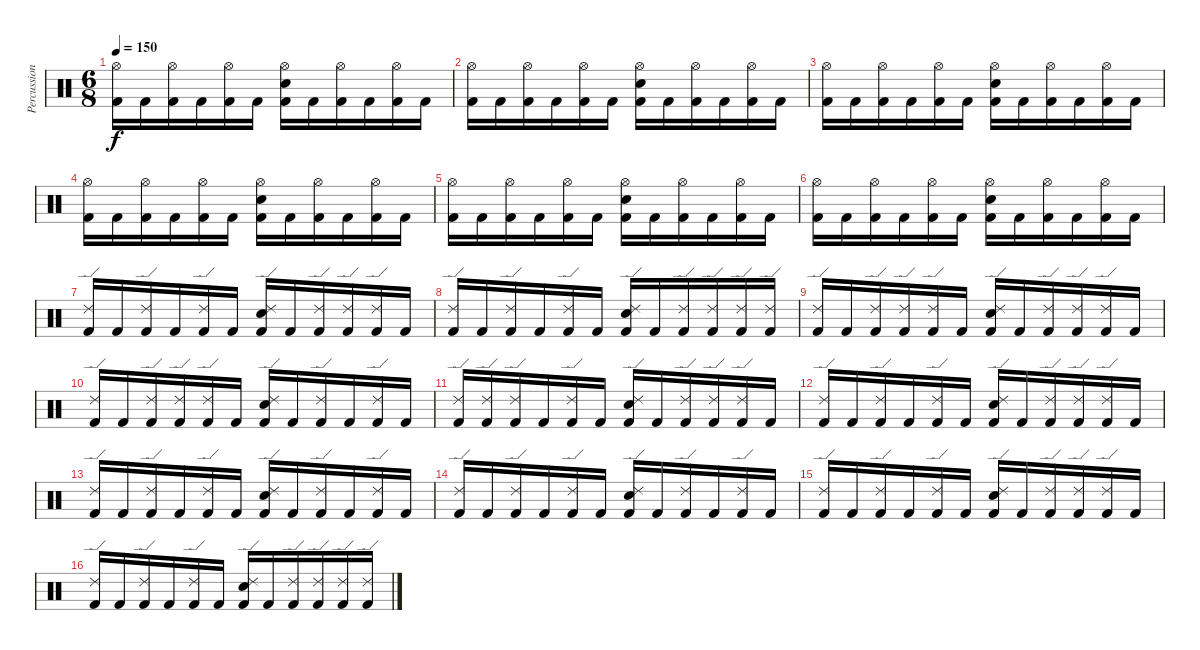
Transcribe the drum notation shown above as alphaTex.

\track ("Percussion" "Percussion") {instrument percussion}
\staff {score}
\articulation defaults
\ts (6 8)
\tempo 150
\clef neutral
\ks c
("Hi-Hat (open)" "Kick (hit) 2").16{dy f} "Kick (hit) 2".16 ("Hi-Hat (open)" "Kick (hit) 2").16 "Kick (hit) 2".16 ("Hi-Hat (open)" "Kick (hit) 2").16 "Kick (hit) 2".16 ("Hi-Hat (open)" "Electric Snare (hit)" "Kick (hit) 2").16 "Kick (hit) 2".16 ("Hi-Hat (open)" "Kick (hit) 2").16 "Kick (hit) 2".16 ("Hi-Hat (open)" "Kick (hit) 2").16 "Kick (hit) 2".16 |
("Hi-Hat (open)" "Kick (hit) 2").16 "Kick (hit) 2".16 ("Hi-Hat (open)" "Kick (hit) 2").16 "Kick (hit) 2".16 ("Hi-Hat (open)" "Kick (hit) 2").16 "Kick (hit) 2".16 ("Hi-Hat (open)" "Electric Snare (hit)" "Kick (hit) 2").16 "Kick (hit) 2".16 ("Hi-Hat (open)" "Kick (hit) 2").16 "Kick (hit) 2".16 ("Hi-Hat (open)" "Kick (hit) 2").16 "Kick (hit) 2".16 |
("Hi-Hat (open)" "Kick (hit) 2").16 "Kick (hit) 2".16 ("Hi-Hat (open)" "Kick (hit) 2").16 "Kick (hit) 2".16 ("Hi-Hat (open)" "Kick (hit) 2").16 "Kick (hit) 2".16 ("Hi-Hat (open)" "Electric Snare (hit)" "Kick (hit) 2").16 "Kick (hit) 2".16 ("Hi-Hat (open)" "Kick (hit) 2").16 "Kick (hit) 2".16 ("Hi-Hat (open)" "Kick (hit) 2").16 "Kick (hit) 2".16 |
("Hi-Hat (open)" "Kick (hit) 2").16 "Kick (hit) 2".16 ("Hi-Hat (open)" "Kick (hit) 2").16 "Kick (hit) 2".16 ("Hi-Hat (open)" "Kick (hit) 2").16 "Kick (hit) 2".16 ("Hi-Hat (open)" "Electric Snare (hit)" "Kick (hit) 2").16 "Kick (hit) 2".16 ("Hi-Hat (open)" "Kick (hit) 2").16 "Kick (hit) 2".16 ("Hi-Hat (open)" "Kick (hit) 2").16 "Kick (hit) 2".16 |
("Hi-Hat (open)" "Kick (hit) 2").16 "Kick (hit) 2".16 ("Hi-Hat (open)" "Kick (hit) 2").16 "Kick (hit) 2".16 ("Hi-Hat (open)" "Kick (hit) 2").16 "Kick (hit) 2".16 ("Hi-Hat (open)" "Electric Snare (hit)" "Kick (hit) 2").16 "Kick (hit) 2".16 ("Hi-Hat (open)" "Kick (hit) 2").16 "Kick (hit) 2".16 ("Hi-Hat (open)" "Kick (hit) 2").16 "Kick (hit) 2".16 |
("Hi-Hat (open)" "Kick (hit) 2").16 "Kick (hit) 2".16 ("Hi-Hat (open)" "Kick (hit) 2").16 "Kick (hit) 2".16 ("Hi-Hat (open)" "Kick (hit) 2").16 "Kick (hit) 2".16 ("Hi-Hat (open)" "Electric Snare (hit)" "Kick (hit) 2").16 "Kick (hit) 2".16 ("Hi-Hat (open)" "Kick (hit) 2").16 "Kick (hit) 2".16 ("Hi-Hat (open)" "Kick (hit) 2").16 "Kick (hit) 2".16 |
("Ride (edge) 2" "Kick (hit) 2").16 "Kick (hit) 2".16 ("Ride (edge) 2" "Kick (hit) 2").16 "Kick (hit) 2".16 ("Ride (edge) 2" "Kick (hit) 2").16 "Kick (hit) 2".16 ("Ride (edge) 2" "Electric Snare (hit)" "Kick (hit) 2").16 "Kick (hit) 2".16 ("Ride (edge) 2" "Kick (hit) 2").16 ("Ride (edge) 2" "Kick (hit) 2").16 ("Ride (edge) 2" "Kick (hit) 2").16 "Kick (hit) 2".16 |
("Ride (edge) 2" "Kick (hit) 2").16 "Kick (hit) 2".16 ("Ride (edge) 2" "Kick (hit) 2").16 "Kick (hit) 2".16 ("Ride (edge) 2" "Kick (hit) 2").16 "Kick (hit) 2".16 ("Ride (edge) 2" "Electric Snare (hit)" "Kick (hit) 2").16 "Kick (hit) 2".16 ("Ride (edge) 2" "Kick (hit) 2").16 ("Ride (edge) 2" "Kick (hit) 2").16 ("Ride (edge) 2" "Kick (hit) 2").16 ("Ride (edge) 2" "Kick (hit) 2").16 |
("Ride (edge) 2" "Kick (hit) 2").16 "Kick (hit) 2".16 ("Ride (edge) 2" "Kick (hit) 2").16 ("Ride (edge) 2" "Kick (hit) 2").16 ("Ride (edge) 2" "Kick (hit) 2").16 "Kick (hit) 2".16 ("Ride (edge) 2" "Electric Snare (hit)" "Kick (hit) 2").16 "Kick (hit) 2".16 ("Ride (edge) 2" "Kick (hit) 2").16 ("Ride (edge) 2" "Kick (hit) 2").16 ("Ride (edge) 2" "Kick (hit) 2").16 "Kick (hit) 2".16 |
("Ride (edge) 2" "Kick (hit) 2").16 "Kick (hit) 2".16 ("Ride (edge) 2" "Kick (hit) 2").16 ("Ride (edge) 2" "Kick (hit) 2").16 ("Ride (edge) 2" "Kick (hit) 2").16 "Kick (hit) 2".16 ("Ride (edge) 2" "Electric Snare (hit)" "Kick (hit) 2").16 "Kick (hit) 2".16 ("Ride (edge) 2" "Kick (hit) 2").16 "Kick (hit) 2".16 ("Ride (edge) 2" "Kick (hit) 2").16 "Kick (hit) 2".16 |
("Ride (edge) 2" "Kick (hit) 2").16 ("Ride (edge) 2" "Kick (hit) 2").16 ("Ride (edge) 2" "Kick (hit) 2").16 "Kick (hit) 2".16 ("Ride (edge) 2" "Kick (hit) 2").16 "Kick (hit) 2".16 ("Ride (edge) 2" "Electric Snare (hit)" "Kick (hit) 2").16 "Kick (hit) 2".16 ("Ride (edge) 2" "Kick (hit) 2").16 ("Ride (edge) 2" "Kick (hit) 2").16 ("Ride (edge) 2" "Kick (hit) 2").16 "Kick (hit) 2".16 |
("Ride (edge) 2" "Kick (hit) 2").16 "Kick (hit) 2".16 ("Ride (edge) 2" "Kick (hit) 2").16 "Kick (hit) 2".16 ("Ride (edge) 2" "Kick (hit) 2").16 "Kick (hit) 2".16 ("Ride (edge) 2" "Electric Snare (hit)" "Kick (hit) 2").16 "Kick (hit) 2".16 ("Ride (edge) 2" "Kick (hit) 2").16 ("Ride (edge) 2" "Kick (hit) 2").16 ("Ride (edge) 2" "Kick (hit) 2").16 "Kick (hit) 2".16 |
("Ride (edge) 2" "Kick (hit) 2").16 "Kick (hit) 2".16 ("Ride (edge) 2" "Kick (hit) 2").16 "Kick (hit) 2".16 ("Ride (edge) 2" "Kick (hit) 2").16 "Kick (hit) 2".16 ("Ride (edge) 2" "Electric Snare (hit)" "Kick (hit) 2").16 "Kick (hit) 2".16 ("Ride (edge) 2" "Kick (hit) 2").16 "Kick (hit) 2".16 ("Ride (edge) 2" "Kick (hit) 2").16 "Kick (hit) 2".16 |
("Ride (edge) 2" "Kick (hit) 2").16 "Kick (hit) 2".16 ("Ride (edge) 2" "Kick (hit) 2").16 "Kick (hit) 2".16 ("Ride (edge) 2" "Kick (hit) 2").16 "Kick (hit) 2".16 ("Ride (edge) 2" "Electric Snare (hit)" "Kick (hit) 2").16 "Kick (hit) 2".16 ("Ride (edge) 2" "Kick (hit) 2").16 "Kick (hit) 2".16 ("Ride (edge) 2" "Kick (hit) 2").16 "Kick (hit) 2".16 |
("Ride (edge) 2" "Kick (hit) 2").16 "Kick (hit) 2".16 ("Ride (edge) 2" "Kick (hit) 2").16 "Kick (hit) 2".16 ("Ride (edge) 2" "Kick (hit) 2").16 "Kick (hit) 2".16 ("Ride (edge) 2" "Electric Snare (hit)" "Kick (hit) 2").16 "Kick (hit) 2".16 ("Ride (edge) 2" "Kick (hit) 2").16 ("Ride (edge) 2" "Kick (hit) 2").16 ("Ride (edge) 2" "Kick (hit) 2").16 "Kick (hit) 2".16 |
("Ride (edge) 2" "Kick (hit) 2").16 "Kick (hit) 2".16 ("Ride (edge) 2" "Kick (hit) 2").16 "Kick (hit) 2".16 ("Ride (edge) 2" "Kick (hit) 2").16 "Kick (hit) 2".16 ("Ride (edge) 2" "Electric Snare (hit)" "Kick (hit) 2").16 "Kick (hit) 2".16 ("Ride (edge) 2" "Kick (hit) 2").16 ("Ride (edge) 2" "Kick (hit) 2").16 ("Ride (edge) 2" "Kick (hit) 2").16 ("Ride (edge) 2" "Kick (hit) 2").16
